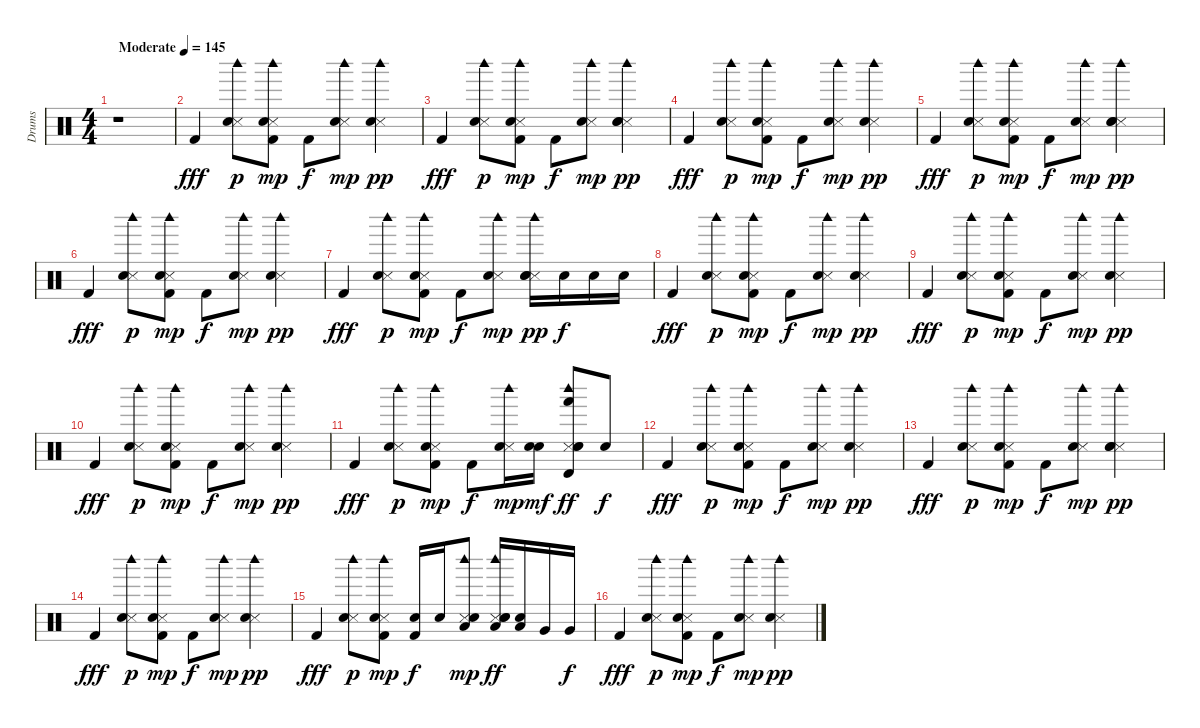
\track ("Drums" "Drums") {instrument percussion}
\staff {score}
\articulation defaults
\ts (4 4)
\tempo (145 "Moderate")
\clef neutral
\ks c
r.1{dy fff} |
"Kick (hit) 2".4 ("Snare (side stick) 3" "Hand Clap (hit)" "Woodblock high (hit)").8{dy p} ("Kick (hit) 2" "Snare (side stick) 3" "Hand Clap (hit)" "Woodblock high (hit)").8{dy mp} "Kick (hit) 2".8{dy f} ("Snare (side stick) 3" "Hand Clap (hit)" "Woodblock high (hit)").8{dy mp} ("Snare (side stick) 3" "Hand Clap (hit)" "Woodblock high (hit)").4{dy pp} |
"Kick (hit) 2".4{dy fff} ("Snare (side stick) 3" "Hand Clap (hit)" "Woodblock high (hit)").8{dy p} ("Kick (hit) 2" "Snare (side stick) 3" "Hand Clap (hit)" "Woodblock high (hit)").8{dy mp} "Kick (hit) 2".8{dy f} ("Snare (side stick) 3" "Hand Clap (hit)" "Woodblock high (hit)").8{dy mp} ("Snare (side stick) 3" "Hand Clap (hit)" "Electric Snare (hit)" "Woodblock high (hit)").4{dy pp} |
"Kick (hit) 2".4{dy fff} ("Snare (side stick) 3" "Hand Clap (hit)" "Woodblock high (hit)").8{dy p} ("Kick (hit) 2" "Snare (side stick) 3" "Hand Clap (hit)" "Woodblock high (hit)").8{dy mp} "Kick (hit) 2".8{dy f} ("Snare (side stick) 3" "Hand Clap (hit)" "Woodblock high (hit)").8{dy mp} ("Snare (side stick) 3" "Hand Clap (hit)" "Woodblock high (hit)").4{dy pp} |
"Kick (hit) 2".4{dy fff} ("Snare (side stick) 3" "Hand Clap (hit)" "Woodblock high (hit)").8{dy p} ("Kick (hit) 2" "Snare (side stick) 3" "Hand Clap (hit)" "Woodblock high (hit)").8{dy mp} "Kick (hit) 2".8{dy f} ("Snare (side stick) 3" "Hand Clap (hit)" "Woodblock high (hit)").8{dy mp} ("Snare (side stick) 3" "Hand Clap (hit)" "Electric Snare (hit)" "Woodblock high (hit)").4{dy pp} |
"Kick (hit) 2".4{dy fff} ("Snare (side stick) 3" "Hand Clap (hit)" "Woodblock high (hit)").8{dy p} ("Kick (hit) 2" "Snare (side stick) 3" "Hand Clap (hit)" "Woodblock high (hit)").8{dy mp} "Kick (hit) 2".8{dy f} ("Snare (side stick) 3" "Hand Clap (hit)" "Woodblock high (hit)").8{dy mp} ("Snare (side stick) 3" "Hand Clap (hit)" "Woodblock high (hit)").4{dy pp} |
"Kick (hit) 2".4{dy fff} ("Snare (side stick) 3" "Hand Clap (hit)" "Woodblock high (hit)").8{dy p} ("Kick (hit) 2" "Snare (side stick) 3" "Hand Clap (hit)" "Woodblock high (hit)").8{dy mp} "Kick (hit) 2".8{dy f} ("Snare (side stick) 3" "Hand Clap (hit)" "Woodblock high (hit)").8{dy mp} ("Snare (side stick) 3" "Hand Clap (hit)" "Electric Snare (hit)" "Woodblock high (hit)").16{dy pp} "Electric Snare (hit)".16{dy f} "Electric Snare (hit)".16 "Electric Snare (hit)".16 |
"Kick (hit) 2".4{dy fff} ("Snare (side stick) 3" "Hand Clap (hit)" "Woodblock high (hit)").8{dy p} ("Kick (hit) 2" "Snare (side stick) 3" "Hand Clap (hit)" "Woodblock high (hit)").8{dy mp} "Kick (hit) 2".8{dy f} ("Snare (side stick) 3" "Hand Clap (hit)" "Woodblock high (hit)").8{dy mp} ("Snare (side stick) 3" "Hand Clap (hit)" "Woodblock high (hit)").4{dy pp} |
"Kick (hit) 2".4{dy fff} ("Snare (side stick) 3" "Hand Clap (hit)" "Woodblock high (hit)").8{dy p} ("Kick (hit) 2" "Snare (side stick) 3" "Hand Clap (hit)" "Woodblock high (hit)").8{dy mp} "Kick (hit) 2".8{dy f} ("Snare (side stick) 3" "Hand Clap (hit)" "Woodblock high (hit)").8{dy mp} ("Snare (side stick) 3" "Hand Clap (hit)" "Woodblock high (hit)").4{dy pp} |
"Kick (hit) 2".4{dy fff} ("Snare (side stick) 3" "Hand Clap (hit)" "Woodblock high (hit)").8{dy p} ("Kick (hit) 2" "Snare (side stick) 3" "Hand Clap (hit)" "Woodblock high (hit)").8{dy mp} "Kick (hit) 2".8{dy f} ("Snare (side stick) 3" "Hand Clap (hit)" "Woodblock high (hit)").8{dy mp} ("Snare (side stick) 3" "Hand Clap (hit)" "Woodblock high (hit)").4{dy pp} |
"Kick (hit) 2".4{dy fff} ("Snare (side stick) 3" "Hand Clap (hit)" "Woodblock high (hit)").8{dy p} ("Kick (hit) 2" "Snare (side stick) 3" "Hand Clap (hit)" "Woodblock high (hit)").8{dy mp} "Kick (hit) 2".8{dy f} ("Snare (side stick) 3" "Hand Clap (hit)" "Woodblock high (hit)").16{dy mp} ("Electric Snare (hit)" "Electric Snare (hit)").16{dy mf} ("Snare (side stick) 3" "Hand Clap (hit)" "Electric Snare (hit)" "Hand (hit)" "Timbale high (hit)" "Woodblock high (hit)").8{dy ff} "Electric Snare (hit)".8{dy f} |
"Kick (hit) 2".4{dy fff} ("Snare (side stick) 3" "Hand Clap (hit)" "Woodblock high (hit)").8{dy p} ("Kick (hit) 2" "Snare (side stick) 3" "Hand Clap (hit)" "Woodblock high (hit)").8{dy mp} "Kick (hit) 2".8{dy f} ("Snare (side stick) 3" "Hand Clap (hit)" "Woodblock high (hit)").8{dy mp} ("Snare (side stick) 3" "Hand Clap (hit)" "Woodblock high (hit)").4{dy pp} |
"Kick (hit) 2".4{dy fff} ("Snare (side stick) 3" "Hand Clap (hit)" "Woodblock high (hit)").8{dy p} ("Kick (hit) 2" "Snare (side stick) 3" "Hand Clap (hit)" "Woodblock high (hit)").8{dy mp} "Kick (hit) 2".8{dy f} ("Snare (side stick) 3" "Hand Clap (hit)" "Woodblock high (hit)").8{dy mp} ("Snare (side stick) 3" "Hand Clap (hit)" "Electric Snare (hit)" "Woodblock high (hit)").4{dy pp} |
"Kick (hit) 2".4{dy fff} ("Snare (side stick) 3" "Hand Clap (hit)" "Woodblock high (hit)").8{dy p} ("Kick (hit) 2" "Snare (side stick) 3" "Hand Clap (hit)" "Woodblock high (hit)").8{dy mp} "Kick (hit) 2".8{dy f} ("Snare (side stick) 3" "Hand Clap (hit)" "Woodblock high (hit)").8{dy mp} ("Snare (side stick) 3" "Hand Clap (hit)" "Woodblock high (hit)").4{dy pp} |
"Kick (hit) 2".4{dy fff} ("Snare (side stick) 3" "Hand Clap (hit)" "Woodblock high (hit)").8{dy p} ("Kick (hit) 2" "Snare (side stick) 3" "Hand Clap (hit)" "Woodblock high (hit)").8{dy mp} ("Kick (hit) 2" "Electric Snare (hit)").16{dy f} "Electric Snare (hit)".16 ("Snare (side stick) 3" "Hand Clap (hit)" "Low Tom (hit)" "Woodblock high (hit)").8{dy mp} ("Snare (side stick) 3" "Hand Clap (hit)" "Electric Snare (hit)" "Low Tom (hit)" "Woodblock high (hit)").16{dy ff} ("Electric Snare (hit)" "Low Tom (hit)").16 "Very Low Tom (hit)".16 "Very Low Tom (hit)".16{dy f} |
"Kick (hit) 2".4{dy fff} ("Snare (side stick) 3" "Hand Clap (hit)" "Woodblock high (hit)").8{dy p} ("Kick (hit) 2" "Snare (side stick) 3" "Hand Clap (hit)" "Woodblock high (hit)").8{dy mp} "Kick (hit) 2".8{dy f} ("Snare (side stick) 3" "Hand Clap (hit)" "Woodblock high (hit)").8{dy mp} ("Snare (side stick) 3" "Hand Clap (hit)" "Woodblock high (hit)").4{dy pp}
